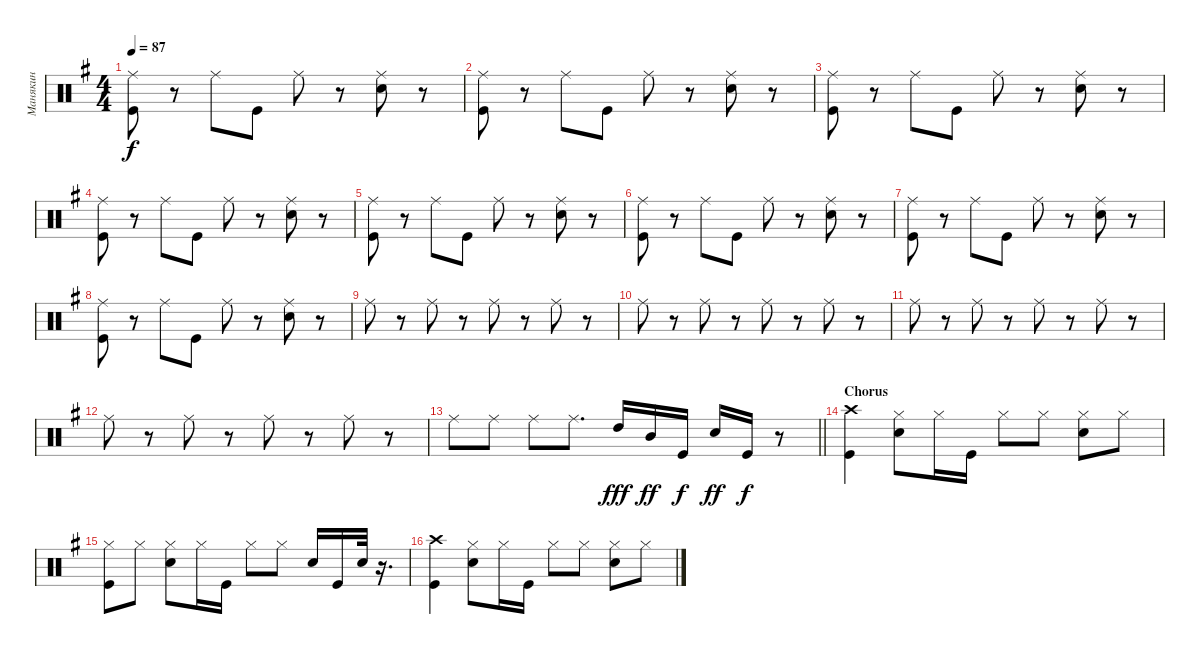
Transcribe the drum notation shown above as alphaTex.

\track ("Манякин" "Манякин") {instrument percussion}
\staff {score}
\articulation defaults
\ts (4 4)
\tempo 87
\clef neutral
\ks g
("Kick (hit)" "Ride (middle)").8{dy f} r.8 "Ride (middle)".8 "Kick (hit)".8 "Ride (middle)".8 r.8 ("Electric Snare (hit)" "Ride (middle)").8 r.8 |
("Kick (hit)" "Ride (middle)").8 r.8 "Ride (middle)".8 "Kick (hit)".8 "Ride (middle)".8 r.8 ("Ride (middle)" "Electric Snare (hit)").8 r.8 |
("Kick (hit)" "Ride (middle)").8 r.8 "Ride (middle)".8 "Kick (hit)".8 "Ride (middle)".8 r.8 ("Ride (middle)" "Electric Snare (hit)").8 r.8 |
("Ride (middle)" "Kick (hit)").8 r.8 "Ride (middle)".8 "Kick (hit)".8 "Ride (middle)".8 r.8 ("Ride (middle)" "Electric Snare (hit)").8 r.8 |
("Kick (hit)" "Ride (middle)").8 r.8 "Ride (middle)".8 "Kick (hit)".8 "Ride (middle)".8 r.8 ("Ride (middle)" "Electric Snare (hit)").8 r.8 |
("Ride (middle)" "Kick (hit)").8 r.8 "Ride (middle)".8 "Kick (hit)".8 "Ride (middle)".8 r.8 ("Ride (middle)" "Electric Snare (hit)").8 r.8 |
("Ride (middle)" "Kick (hit)").8 r.8 "Ride (middle)".8 "Kick (hit)".8 "Ride (middle)".8 r.8 ("Ride (middle)" "Electric Snare (hit)").8 r.8 |
("Ride (middle)" "Kick (hit)").8 r.8 "Ride (middle)".8 "Kick (hit)".8 "Ride (middle)".8 r.8 ("Electric Snare (hit)" "Ride (middle)").8 r.8 |
"Ride (middle)".8 r.8 "Ride (middle)".8 r.8 "Ride (middle)".8 r.8 "Ride (middle)".8 r.8 |
"Ride (middle)".8 r.8 "Ride (middle)".8 r.8 "Ride (middle)".8 r.8 "Ride (middle)".8 r.8 |
"Ride (middle)".8 r.8 "Ride (middle)".8 r.8 "Ride (middle)".8 r.8 "Ride (middle)".8 r.8 |
"Ride (middle)".8 r.8 "Ride (middle)".8 r.8 "Ride (middle)".8 r.8 "Ride (middle)".8 r.8 |
\barLineRight lightlight "Ride (middle)".8 "Ride (middle)".8 "Ride (middle)".8 "Ride (middle)".8{d} "High Tom (hit)".16{dy fff} "Mid Tom (hit)".16{dy ff} "Kick (hit)".16{dy f} "Electric Snare (hit)".16{dy ff} "Kick (hit)".16{dy f}
r.8 |
\section ("" "Chorus")
("Crash high (hit)" "Kick (hit)").4 ("Electric Snare (hit)" "Hi-Hat (closed)").8 "Hi-Hat (closed)".16 "Kick (hit)".16 "Hi-Hat (closed)".8 "Hi-Hat (closed)".8 ("Electric Snare (hit)" "Hi-Hat (closed)").8 "Hi-Hat (closed)".8 |
("Kick (hit)" "Hi-Hat (closed)").8 "Hi-Hat (closed)".8 ("Hi-Hat (closed)" "Electric Snare (hit)").8 "Hi-Hat (closed)".16 "Kick (hit)".16 "Hi-Hat (closed)".8 "Hi-Hat (closed)".8 "Electric Snare (hit)".16 "Kick (hit)".16 "Electric Snare (hit)".32 r.16{d} |
("Crash high (hit)" "Kick (hit)").4 ("Hi-Hat (closed)" "Electric Snare (hit)").8 "Hi-Hat (closed)".16 "Kick (hit)".16 "Hi-Hat (closed)".8 "Hi-Hat (closed)".8 ("Hi-Hat (closed)" "Electric Snare (hit)").8 "Hi-Hat (closed)".8
